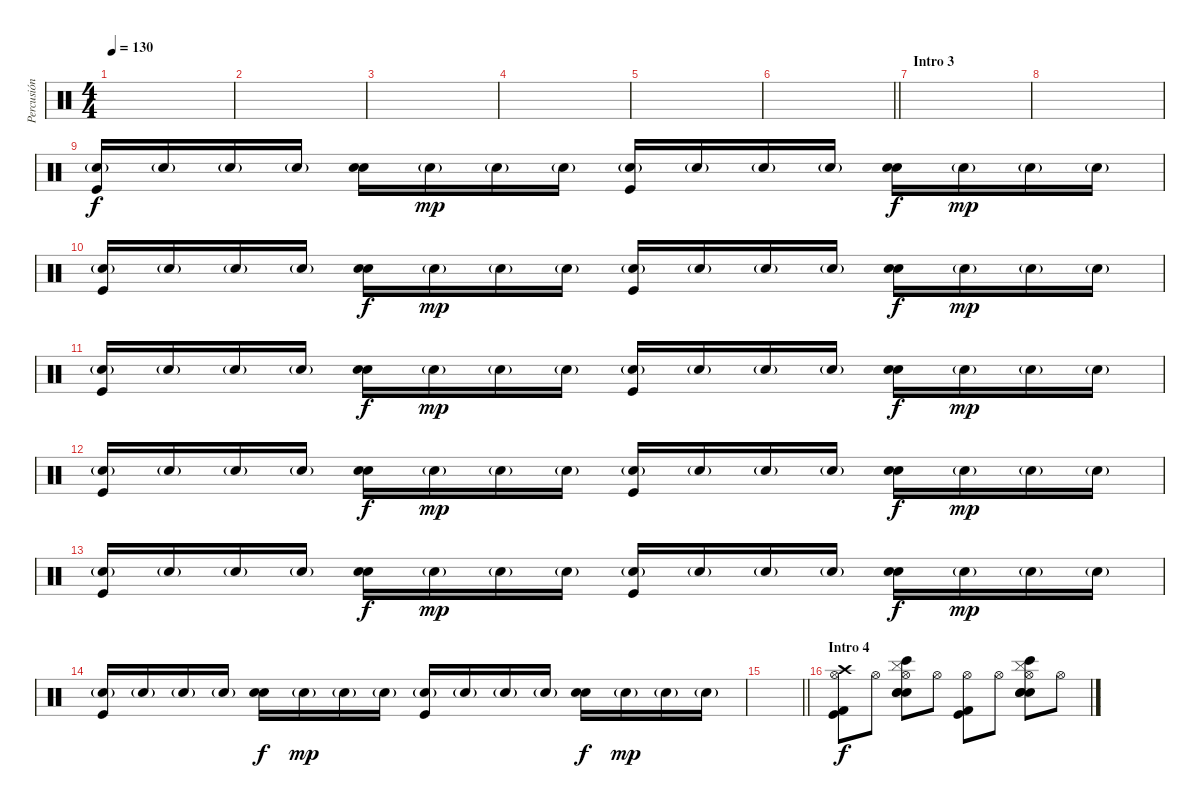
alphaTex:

\track ("Percusión" "Percusión") {instrument percussion}
\staff {score}
\articulation defaults
\ts (4 4)
\tempo 130
\clef neutral
\ks c
|
|
|
|
|
\barLineRight lightlight
|
\section ("" "Intro 3")
|
|
("Electric Snare (hit)"{g} "Kick (hit)").16{volume 13} "Electric Snare (hit)"{g}.16 "Electric Snare (hit)"{g}.16 "Electric Snare (hit)"{g}.16 ("Electric Snare (hit)" "Hand Clap (hit)").16{dy f} "Electric Snare (hit)"{g}.16{dy mp} "Electric Snare (hit)"{g}.16 "Electric Snare (hit)"{g}.16 ("Electric Snare (hit)"{g} "Kick (hit)").16 "Electric Snare (hit)"{g}.16 "Electric Snare (hit)"{g}.16 "Electric Snare (hit)"{g}.16 ("Electric Snare (hit)" "Hand Clap (hit)").16{dy f} "Electric Snare (hit)"{g}.16{dy mp} "Electric Snare (hit)"{g}.16 "Electric Snare (hit)"{g}.16 |
("Electric Snare (hit)"{g} "Kick (hit)").16 "Electric Snare (hit)"{g}.16 "Electric Snare (hit)"{g}.16 "Electric Snare (hit)"{g}.16 ("Electric Snare (hit)" "Hand Clap (hit)").16{dy f} "Electric Snare (hit)"{g}.16{dy mp} "Electric Snare (hit)"{g}.16 "Electric Snare (hit)"{g}.16 ("Electric Snare (hit)"{g} "Kick (hit)").16 "Electric Snare (hit)"{g}.16 "Electric Snare (hit)"{g}.16 "Electric Snare (hit)"{g}.16 ("Electric Snare (hit)" "Hand Clap (hit)").16{dy f} "Electric Snare (hit)"{g}.16{dy mp} "Electric Snare (hit)"{g}.16 "Electric Snare (hit)"{g}.16 |
("Electric Snare (hit)"{g} "Kick (hit)").16 "Electric Snare (hit)"{g}.16 "Electric Snare (hit)"{g}.16 "Electric Snare (hit)"{g}.16 ("Electric Snare (hit)" "Hand Clap (hit)").16{dy f} "Electric Snare (hit)"{g}.16{dy mp} "Electric Snare (hit)"{g}.16 "Electric Snare (hit)"{g}.16 ("Electric Snare (hit)"{g} "Kick (hit)").16 "Electric Snare (hit)"{g}.16 "Electric Snare (hit)"{g}.16 "Electric Snare (hit)"{g}.16 ("Electric Snare (hit)" "Hand Clap (hit)").16{dy f} "Electric Snare (hit)"{g}.16{dy mp} "Electric Snare (hit)"{g}.16 "Electric Snare (hit)"{g}.16 |
("Electric Snare (hit)"{g} "Kick (hit)").16 "Electric Snare (hit)"{g}.16 "Electric Snare (hit)"{g}.16 "Electric Snare (hit)"{g}.16 ("Electric Snare (hit)" "Hand Clap (hit)").16{dy f} "Electric Snare (hit)"{g}.16{dy mp} "Electric Snare (hit)"{g}.16 "Electric Snare (hit)"{g}.16 ("Electric Snare (hit)"{g} "Kick (hit)").16 "Electric Snare (hit)"{g}.16 "Electric Snare (hit)"{g}.16 "Electric Snare (hit)"{g}.16 ("Electric Snare (hit)" "Hand Clap (hit)").16{dy f} "Electric Snare (hit)"{g}.16{dy mp} "Electric Snare (hit)"{g}.16 "Electric Snare (hit)"{g}.16 |
("Electric Snare (hit)"{g} "Kick (hit)").16 "Electric Snare (hit)"{g}.16 "Electric Snare (hit)"{g}.16 "Electric Snare (hit)"{g}.16 ("Electric Snare (hit)" "Hand Clap (hit)").16{dy f} "Electric Snare (hit)"{g}.16{dy mp} "Electric Snare (hit)"{g}.16 "Electric Snare (hit)"{g}.16 ("Electric Snare (hit)"{g} "Kick (hit)").16 "Electric Snare (hit)"{g}.16 "Electric Snare (hit)"{g}.16 "Electric Snare (hit)"{g}.16 ("Electric Snare (hit)" "Hand Clap (hit)").16{dy f} "Electric Snare (hit)"{g}.16{dy mp} "Electric Snare (hit)"{g}.16 "Electric Snare (hit)"{g}.16 |
("Electric Snare (hit)"{g} "Kick (hit)").16 "Electric Snare (hit)"{g}.16 "Electric Snare (hit)"{g}.16 "Electric Snare (hit)"{g}.16 ("Electric Snare (hit)" "Hand Clap (hit)").16{dy f} "Electric Snare (hit)"{g}.16{dy mp} "Electric Snare (hit)"{g}.16 "Electric Snare (hit)"{g}.16 ("Electric Snare (hit)"{g} "Kick (hit)").16 "Electric Snare (hit)"{g}.16 "Electric Snare (hit)"{g}.16 "Electric Snare (hit)"{g}.16 ("Electric Snare (hit)" "Hand Clap (hit)").16{dy f} "Electric Snare (hit)"{g}.16{dy mp} "Electric Snare (hit)"{g}.16 "Electric Snare (hit)"{g}.16 |
\barLineRight lightlight
|
\section ("" "Intro 4")
("Hi-Hat (open)" "Kick (hit)" "Kick (hit) 2" "Crash high (hit)").8{dy f} "Hi-Hat (open)".8 ("Hi-Hat (open)" "Hand Clap (hit)" "Cymbal (hit)" "Electric Snare (hit)" "Bongo High (hit)" "Snare (hit) 2").8 "Hi-Hat (open)".8 ("Hi-Hat (open)" "Kick (hit)" "Kick (hit) 2").8 "Hi-Hat (open)".8 ("Hi-Hat (open)" "Hand Clap (hit)" "Cymbal (hit)" "Electric Snare (hit)" "Bongo High (hit)" "Snare (hit) 2").8 "Hi-Hat (open)".8
